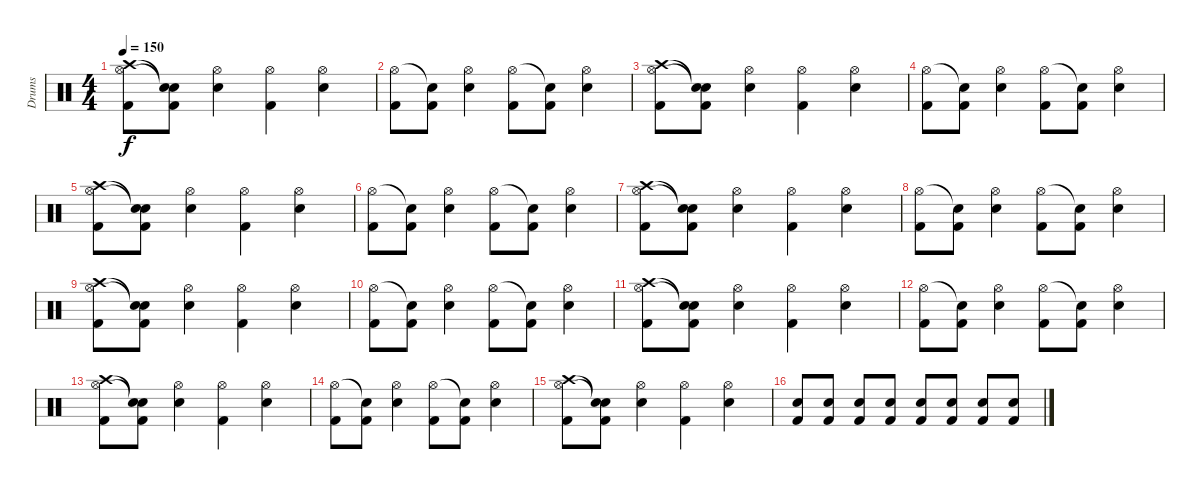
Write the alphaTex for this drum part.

\track ("Drums" "Drums") {instrument percussion}
\staff {score}
\articulation defaults
\ts (4 4)
\tempo 150
\clef neutral
\ks c
("Crash high (hit)" "Hi-Hat (open)" "Kick (hit) 2").8{dy f} ("Snare (hit)"{t} "Snare (hit)"{t} "Kick (hit) 2").8 ("Snare (hit) 2" "Hi-Hat (open)").4 ("Hi-Hat (open)" "Kick (hit) 2").4 ("Snare (hit) 2" "Hi-Hat (open)").4 |
("Hi-Hat (open)" "Kick (hit) 2").8 ("Snare (hit)"{t} "Kick (hit) 2").8 ("Snare (hit) 2" "Hi-Hat (open)").4 ("Hi-Hat (open)" "Kick (hit) 2").8 ("Snare (hit)"{t} "Kick (hit) 2").8 ("Snare (hit) 2" "Hi-Hat (open)").4 |
("Crash high (hit)" "Hi-Hat (open)" "Kick (hit) 2").8 ("Snare (hit)"{t} "Snare (hit)"{t} "Kick (hit) 2").8 ("Snare (hit) 2" "Hi-Hat (open)").4 ("Hi-Hat (open)" "Kick (hit) 2").4 ("Snare (hit) 2" "Hi-Hat (open)").4 |
("Hi-Hat (open)" "Kick (hit) 2").8 ("Snare (hit)"{t} "Kick (hit) 2").8 ("Snare (hit) 2" "Hi-Hat (open)").4 ("Hi-Hat (open)" "Kick (hit) 2").8 ("Snare (hit)"{t} "Kick (hit) 2").8 ("Snare (hit) 2" "Hi-Hat (open)").4 |
("Crash high (hit)" "Hi-Hat (open)" "Kick (hit) 2").8 ("Snare (hit)"{t} "Snare (hit)"{t} "Kick (hit) 2").8 ("Snare (hit) 2" "Hi-Hat (open)").4 ("Hi-Hat (open)" "Kick (hit) 2").4 ("Snare (hit) 2" "Hi-Hat (open)").4 |
("Hi-Hat (open)" "Kick (hit) 2").8 ("Snare (hit)"{t} "Kick (hit) 2").8 ("Snare (hit) 2" "Hi-Hat (open)").4 ("Hi-Hat (open)" "Kick (hit) 2").8 ("Snare (hit)"{t} "Kick (hit) 2").8 ("Snare (hit) 2" "Hi-Hat (open)").4 |
("Crash high (hit)" "Hi-Hat (open)" "Kick (hit) 2").8 ("Snare (hit)"{t} "Snare (hit)"{t} "Kick (hit) 2").8 ("Snare (hit) 2" "Hi-Hat (open)").4 ("Hi-Hat (open)" "Kick (hit) 2").4 ("Snare (hit) 2" "Hi-Hat (open)").4 |
("Hi-Hat (open)" "Kick (hit) 2").8 ("Snare (hit)"{t} "Kick (hit) 2").8 ("Snare (hit) 2" "Hi-Hat (open)").4 ("Hi-Hat (open)" "Kick (hit) 2").8 ("Snare (hit)"{t} "Kick (hit) 2").8 ("Snare (hit) 2" "Hi-Hat (open)").4 |
("Crash high (hit)" "Hi-Hat (open)" "Kick (hit) 2").8 ("Snare (hit)"{t} "Snare (hit)"{t} "Kick (hit) 2").8 ("Snare (hit) 2" "Hi-Hat (open)").4 ("Hi-Hat (open)" "Kick (hit) 2").4 ("Snare (hit) 2" "Hi-Hat (open)").4 |
("Hi-Hat (open)" "Kick (hit) 2").8 ("Snare (hit)"{t} "Kick (hit) 2").8 ("Snare (hit) 2" "Hi-Hat (open)").4 ("Hi-Hat (open)" "Kick (hit) 2").8 ("Snare (hit)"{t} "Kick (hit) 2").8 ("Snare (hit) 2" "Hi-Hat (open)").4 |
("Crash high (hit)" "Hi-Hat (open)" "Kick (hit) 2").8 ("Snare (hit)"{t} "Snare (hit)"{t} "Kick (hit) 2").8 ("Snare (hit) 2" "Hi-Hat (open)").4 ("Hi-Hat (open)" "Kick (hit) 2").4 ("Snare (hit) 2" "Hi-Hat (open)").4 |
("Hi-Hat (open)" "Kick (hit) 2").8 ("Snare (hit)"{t} "Kick (hit) 2").8 ("Snare (hit) 2" "Hi-Hat (open)").4 ("Hi-Hat (open)" "Kick (hit) 2").8 ("Snare (hit)"{t} "Kick (hit) 2").8 ("Snare (hit) 2" "Hi-Hat (open)").4 |
("Crash high (hit)" "Hi-Hat (open)" "Kick (hit) 2").8 ("Snare (hit)"{t} "Snare (hit)"{t} "Kick (hit) 2").8 ("Snare (hit) 2" "Hi-Hat (open)").4 ("Hi-Hat (open)" "Kick (hit) 2").4 ("Snare (hit) 2" "Hi-Hat (open)").4 |
("Hi-Hat (open)" "Kick (hit) 2").8 ("Snare (hit)"{t} "Kick (hit) 2").8 ("Snare (hit) 2" "Hi-Hat (open)").4 ("Hi-Hat (open)" "Kick (hit) 2").8 ("Snare (hit)"{t} "Kick (hit) 2").8 ("Snare (hit) 2" "Hi-Hat (open)").4 |
("Crash high (hit)" "Hi-Hat (open)" "Kick (hit) 2").8 ("Snare (hit)"{t} "Snare (hit)"{t} "Kick (hit) 2").8 ("Snare (hit) 2" "Hi-Hat (open)").4 ("Hi-Hat (open)" "Kick (hit) 2").4 ("Snare (hit) 2" "Hi-Hat (open)").4 |
("Snare (hit) 2" "Kick (hit) 2").8 ("Snare (hit) 2" "Kick (hit) 2").8 ("Snare (hit) 2" "Kick (hit) 2").8 ("Snare (hit) 2" "Kick (hit) 2").8 ("Snare (hit) 2" "Kick (hit) 2").8 ("Snare (hit) 2" "Kick (hit) 2").8 ("Snare (hit) 2" "Kick (hit) 2").8 ("Snare (hit) 2" "Kick (hit) 2").8
